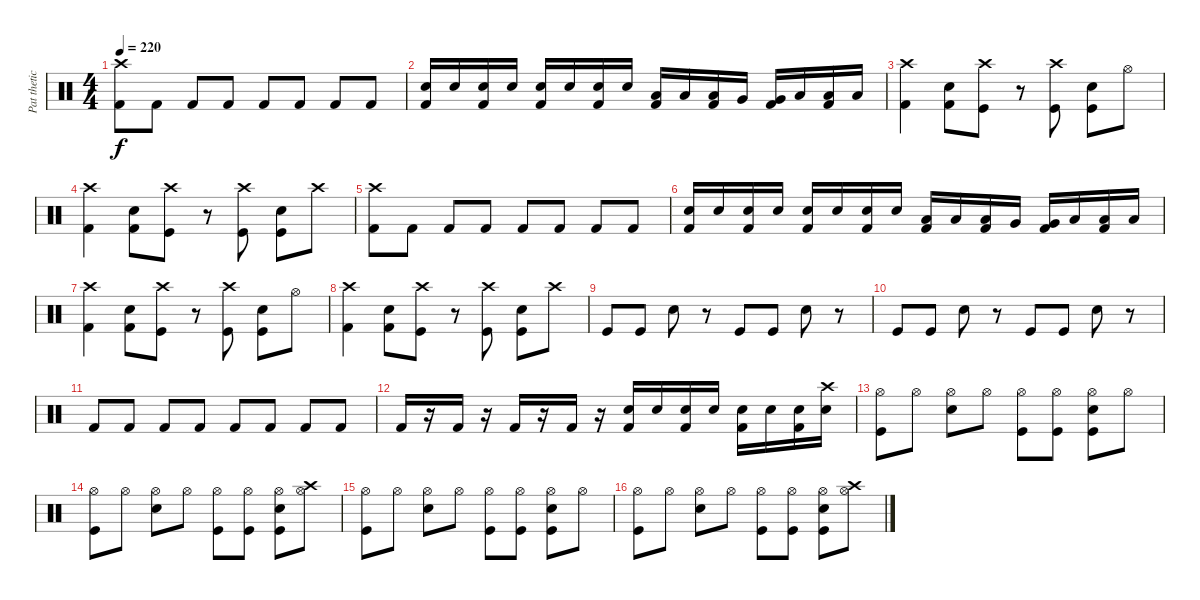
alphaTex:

\track ("Pat thetic (Drums)" "Pat thetic") {instrument percussion}
\staff {score}
\articulation defaults
\ts (4 4)
\tempo 220
\clef neutral
\ks c
("Kick (hit) 2" "Crash high (hit)").8{dy f} "Kick (hit) 2".8 "Kick (hit) 2".8 "Kick (hit) 2".8 "Kick (hit) 2".8 "Kick (hit) 2".8 "Kick (hit) 2".8 "Kick (hit) 2".8 |
("Kick (hit) 2" "Electric Snare (hit)").16 "Electric Snare (hit)".16 ("Kick (hit) 2" "Electric Snare (hit)").16 "Electric Snare (hit)".16 ("Kick (hit) 2" "Electric Snare (hit)").16 "Electric Snare (hit)".16 ("Kick (hit) 2" "Electric Snare (hit)").16 "Electric Snare (hit)".16 ("Kick (hit) 2" "Low Tom (hit)").16 "Low Tom (hit)".16 ("Kick (hit) 2" "Low Tom (hit)").16 "Very Low Tom (hit)".16 ("Kick (hit) 2" "Very Low Tom (hit)").16 "Low Floor Tom (hit)".16 ("Kick (hit) 2" "Low Floor Tom (hit)").16 "Low Floor Tom (hit)".16 |
("Kick (hit) 2" "Crash high (hit)").4 ("Kick (hit) 2" "Electric Snare (hit)").8 ("Kick (hit)" "Crash high (hit)").8 r.8 ("Kick (hit)" "Crash high (hit)").8 ("Kick (hit)" "Electric Snare (hit)").8 "Hi-Hat (open)".8 |
("Kick (hit) 2" "Crash high (hit)").4 ("Kick (hit) 2" "Electric Snare (hit)").8 ("Kick (hit)" "Crash high (hit)").8 r.8 ("Kick (hit)" "Crash high (hit)").8 ("Kick (hit)" "Electric Snare (hit)").8 "Crash high (hit)".8 |
("Kick (hit) 2" "Crash high (hit)").8 "Kick (hit) 2".8 "Kick (hit) 2".8 "Kick (hit) 2".8 "Kick (hit) 2".8 "Kick (hit) 2".8 "Kick (hit) 2".8 "Kick (hit) 2".8 |
("Kick (hit) 2" "Electric Snare (hit)").16 "Electric Snare (hit)".16 ("Kick (hit) 2" "Electric Snare (hit)").16 "Electric Snare (hit)".16 ("Kick (hit) 2" "Electric Snare (hit)").16 "Electric Snare (hit)".16 ("Kick (hit) 2" "Electric Snare (hit)").16 "Electric Snare (hit)".16 ("Kick (hit) 2" "Low Tom (hit)").16 "Low Tom (hit)".16 ("Kick (hit) 2" "Low Tom (hit)").16 "Very Low Tom (hit)".16 ("Kick (hit) 2" "Very Low Tom (hit)").16 "Low Floor Tom (hit)".16 ("Kick (hit) 2" "Low Floor Tom (hit)").16 "Low Floor Tom (hit)".16 |
("Kick (hit) 2" "Crash high (hit)").4 ("Kick (hit) 2" "Electric Snare (hit)").8 ("Kick (hit)" "Crash high (hit)").8 r.8 ("Kick (hit)" "Crash high (hit)").8 ("Kick (hit)" "Electric Snare (hit)").8 "Hi-Hat (open)".8 |
("Kick (hit) 2" "Crash high (hit)").4 ("Kick (hit) 2" "Electric Snare (hit)").8 ("Kick (hit)" "Crash high (hit)").8 r.8 ("Kick (hit)" "Crash high (hit)").8 ("Kick (hit)" "Electric Snare (hit)").8 "Crash high (hit)".8 |
"Kick (hit)".8 "Kick (hit)".8 "Electric Snare (hit)".8 r.8 "Kick (hit)".8 "Kick (hit)".8 "Electric Snare (hit)".8 r.8 |
"Kick (hit)".8 "Kick (hit)".8 "Electric Snare (hit)".8 r.8 "Kick (hit)".8 "Kick (hit)".8 "Electric Snare (hit)".8 r.8 |
"Kick (hit) 2".8 "Kick (hit) 2".8 "Kick (hit) 2".8 "Kick (hit) 2".8 "Kick (hit) 2".8 "Kick (hit) 2".8 "Kick (hit) 2".8 "Kick (hit) 2".8 |
"Kick (hit) 2".16 r.16 "Kick (hit) 2".16 r.16 "Kick (hit) 2".16 r.16 "Kick (hit) 2".16 r.16 ("Kick (hit) 2" "Electric Snare (hit)").16 "Electric Snare (hit)".16 ("Kick (hit) 2" "Electric Snare (hit)").16 "Electric Snare (hit)".16 ("Kick (hit) 2" "Electric Snare (hit)").16 "Electric Snare (hit)".16 ("Kick (hit) 2" "Electric Snare (hit)").16 ("Electric Snare (hit)" "Crash high (hit)").16 |
("Kick (hit)" "Hi-Hat (open)").8 "Hi-Hat (open)".8 ("Electric Snare (hit)" "Hi-Hat (open)").8 "Hi-Hat (open)".8 ("Kick (hit)" "Hi-Hat (open)").8 ("Kick (hit)" "Hi-Hat (open)").8 ("Kick (hit)" "Electric Snare (hit)" "Hi-Hat (open)").8 "Hi-Hat (open)".8 |
("Kick (hit)" "Hi-Hat (open)").8 "Hi-Hat (open)".8 ("Electric Snare (hit)" "Hi-Hat (open)").8 "Hi-Hat (open)".8 ("Kick (hit)" "Hi-Hat (open)").8 ("Kick (hit)" "Hi-Hat (open)").8 ("Kick (hit)" "Electric Snare (hit)" "Hi-Hat (open)").8 ("Crash high (hit)" "Hi-Hat (open)").8 |
("Kick (hit)" "Hi-Hat (open)").8 "Hi-Hat (open)".8 ("Electric Snare (hit)" "Hi-Hat (open)").8 "Hi-Hat (open)".8 ("Kick (hit)" "Hi-Hat (open)").8 ("Kick (hit)" "Hi-Hat (open)").8 ("Kick (hit)" "Electric Snare (hit)" "Hi-Hat (open)").8 "Hi-Hat (open)".8 |
("Kick (hit)" "Hi-Hat (open)").8 "Hi-Hat (open)".8 ("Electric Snare (hit)" "Hi-Hat (open)").8 "Hi-Hat (open)".8 ("Kick (hit)" "Hi-Hat (open)").8 ("Kick (hit)" "Hi-Hat (open)").8 ("Kick (hit)" "Electric Snare (hit)" "Hi-Hat (open)").8 ("Crash high (hit)" "Hi-Hat (open)").8
